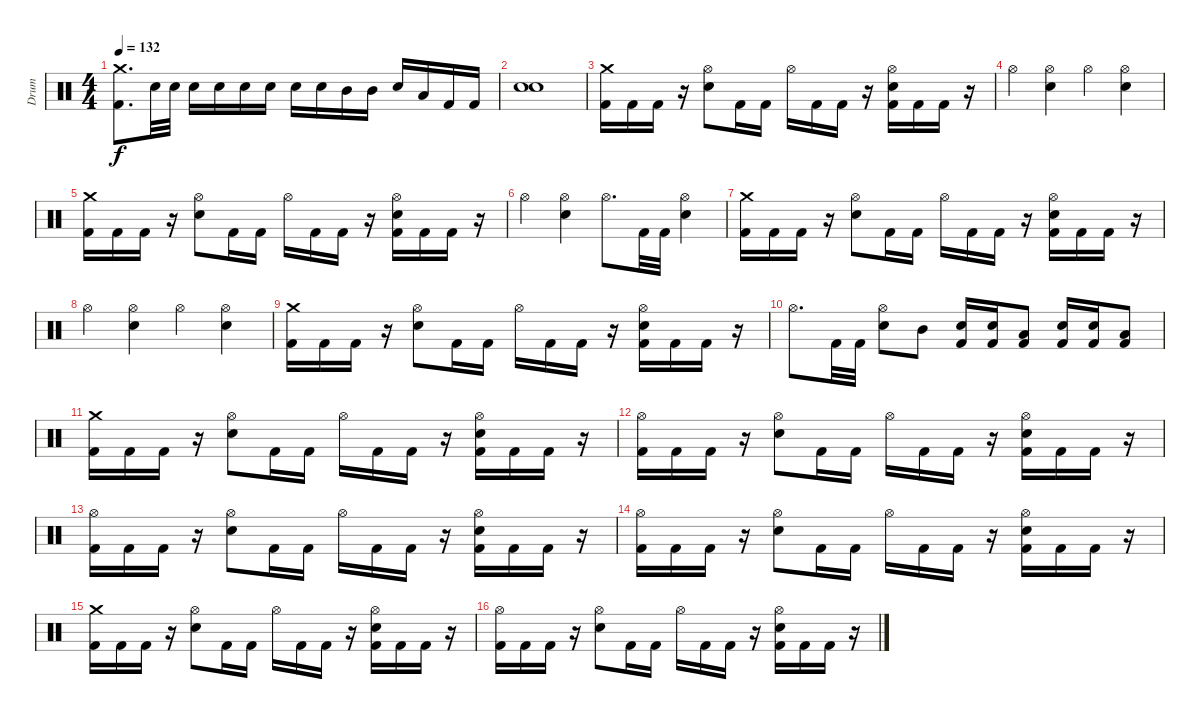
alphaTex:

\track ("Drum" "Drum") {instrument percussion}
\staff {score}
\articulation defaults
\ts (4 4)
\tempo 132
\clef neutral
\ks c
("Crash medium (hit)" "Kick (hit) 2").8{d dy f} "Snare (hit) 2".32 "Snare (hit) 2".32 "Snare (hit) 2".16 "Snare (hit) 2".16 "Snare (hit) 2".16 "Snare (hit) 2".16 "Snare (hit) 2".16 "Snare (hit) 2".16 "Mid Tom (hit)".16 "Mid Tom (hit)".16 "Snare (hit) 2".16 "Low Tom (hit)".16 "Kick (hit) 2".16 "Kick (hit) 2".16 |
("Snare (hit) 2" "Snare (hit) 2").1 |
("Crash medium (hit)" "Kick (hit) 2").16 "Kick (hit) 2".16 "Kick (hit) 2".16 r.16 ("Hi-Hat (open)" "Snare (hit) 2").8 "Kick (hit) 2".16 "Kick (hit) 2".16 "Hi-Hat (open)".16 "Kick (hit) 2".16 "Kick (hit) 2".16 r.16 ("Hi-Hat (open)" "Snare (hit) 2" "Kick (hit) 2").16 "Kick (hit) 2".16 "Kick (hit) 2".16 r.16 |
"Hi-Hat (open)".4 ("Hi-Hat (open)" "Snare (hit) 2").4 "Hi-Hat (open)".4 ("Hi-Hat (open)" "Snare (hit) 2").4 |
("Crash medium (hit)" "Kick (hit) 2").16 "Kick (hit) 2".16 "Kick (hit) 2".16 r.16 ("Hi-Hat (open)" "Snare (hit) 2").8 "Kick (hit) 2".16 "Kick (hit) 2".16 "Hi-Hat (open)".16 "Kick (hit) 2".16 "Kick (hit) 2".16 r.16 ("Hi-Hat (open)" "Snare (hit) 2" "Kick (hit) 2").16 "Kick (hit) 2".16 "Kick (hit) 2".16 r.16 |
"Hi-Hat (open)".4 ("Hi-Hat (open)" "Snare (hit) 2").4 "Hi-Hat (open)".8{d} "Kick (hit) 2".32 "Kick (hit) 2".32 ("Hi-Hat (open)" "Snare (hit) 2").4 |
("Crash medium (hit)" "Kick (hit) 2").16 "Kick (hit) 2".16 "Kick (hit) 2".16 r.16 ("Hi-Hat (open)" "Snare (hit) 2").8 "Kick (hit) 2".16 "Kick (hit) 2".16 "Hi-Hat (open)".16 "Kick (hit) 2".16 "Kick (hit) 2".16 r.16 ("Hi-Hat (open)" "Snare (hit) 2" "Kick (hit) 2").16 "Kick (hit) 2".16 "Kick (hit) 2".16 r.16 |
"Hi-Hat (open)".4 ("Hi-Hat (open)" "Snare (hit) 2").4 "Hi-Hat (open)".4 ("Hi-Hat (open)" "Snare (hit) 2").4 |
("Crash medium (hit)" "Kick (hit) 2").16 "Kick (hit) 2".16 "Kick (hit) 2".16 r.16 ("Hi-Hat (open)" "Snare (hit) 2").8 "Kick (hit) 2".16 "Kick (hit) 2".16 "Hi-Hat (open)".16 "Kick (hit) 2".16 "Kick (hit) 2".16 r.16 ("Hi-Hat (open)" "Snare (hit) 2" "Kick (hit) 2").16 "Kick (hit) 2".16 "Kick (hit) 2".16 r.16 |
"Hi-Hat (open)".8{d} "Kick (hit) 2".32 "Kick (hit) 2".32 ("Hi-Hat (open)" "Snare (hit) 2").8 "Mid Tom (hit)".8 ("Snare (hit) 2" "Kick (hit) 2").16 ("Snare (hit) 2" "Kick (hit) 2").16 ("Low Tom (hit)" "Kick (hit) 2").8 ("Snare (hit) 2" "Kick (hit) 2").16 ("Snare (hit) 2" "Kick (hit) 2").16 ("Low Tom (hit)" "Kick (hit) 2").8 |
("Crash medium (hit)" "Kick (hit) 2").16 "Kick (hit) 2".16 "Kick (hit) 2".16 r.16 ("Hi-Hat (open)" "Snare (hit) 2").8 "Kick (hit) 2".16 "Kick (hit) 2".16 "Hi-Hat (open)".16 "Kick (hit) 2".16 "Kick (hit) 2".16 r.16 ("Hi-Hat (open)" "Snare (hit) 2" "Kick (hit) 2").16 "Kick (hit) 2".16 "Kick (hit) 2".16 r.16 |
("Hi-Hat (open)" "Kick (hit) 2").16 "Kick (hit) 2".16 "Kick (hit) 2".16 r.16 ("Hi-Hat (open)" "Snare (hit) 2").8 "Kick (hit) 2".16 "Kick (hit) 2".16 "Hi-Hat (open)".16 "Kick (hit) 2".16 "Kick (hit) 2".16 r.16 ("Hi-Hat (open)" "Snare (hit) 2" "Kick (hit) 2").16 "Kick (hit) 2".16 "Kick (hit) 2".16 r.16 |
("Hi-Hat (open)" "Kick (hit) 2").16 "Kick (hit) 2".16 "Kick (hit) 2".16 r.16 ("Hi-Hat (open)" "Snare (hit) 2").8 "Kick (hit) 2".16 "Kick (hit) 2".16 "Hi-Hat (open)".16 "Kick (hit) 2".16 "Kick (hit) 2".16 r.16 ("Hi-Hat (open)" "Snare (hit) 2" "Kick (hit) 2").16 "Kick (hit) 2".16 "Kick (hit) 2".16 r.16 |
("Hi-Hat (open)" "Kick (hit) 2").16 "Kick (hit) 2".16 "Kick (hit) 2".16 r.16 ("Hi-Hat (open)" "Snare (hit) 2").8 "Kick (hit) 2".16 "Kick (hit) 2".16 "Hi-Hat (open)".16 "Kick (hit) 2".16 "Kick (hit) 2".16 r.16 ("Hi-Hat (open)" "Snare (hit) 2" "Kick (hit) 2").16 "Kick (hit) 2".16 "Kick (hit) 2".16 r.16 |
("Crash medium (hit)" "Kick (hit) 2").16 "Kick (hit) 2".16 "Kick (hit) 2".16 r.16 ("Hi-Hat (open)" "Snare (hit) 2").8 "Kick (hit) 2".16 "Kick (hit) 2".16 "Hi-Hat (open)".16 "Kick (hit) 2".16 "Kick (hit) 2".16 r.16 ("Hi-Hat (open)" "Snare (hit) 2" "Kick (hit) 2").16 "Kick (hit) 2".16 "Kick (hit) 2".16 r.16 |
("Hi-Hat (open)" "Kick (hit) 2").16 "Kick (hit) 2".16 "Kick (hit) 2".16 r.16 ("Hi-Hat (open)" "Snare (hit) 2").8 "Kick (hit) 2".16 "Kick (hit) 2".16 "Hi-Hat (open)".16 "Kick (hit) 2".16 "Kick (hit) 2".16 r.16 ("Hi-Hat (open)" "Snare (hit) 2" "Kick (hit) 2").16 "Kick (hit) 2".16 "Kick (hit) 2".16 r.16
